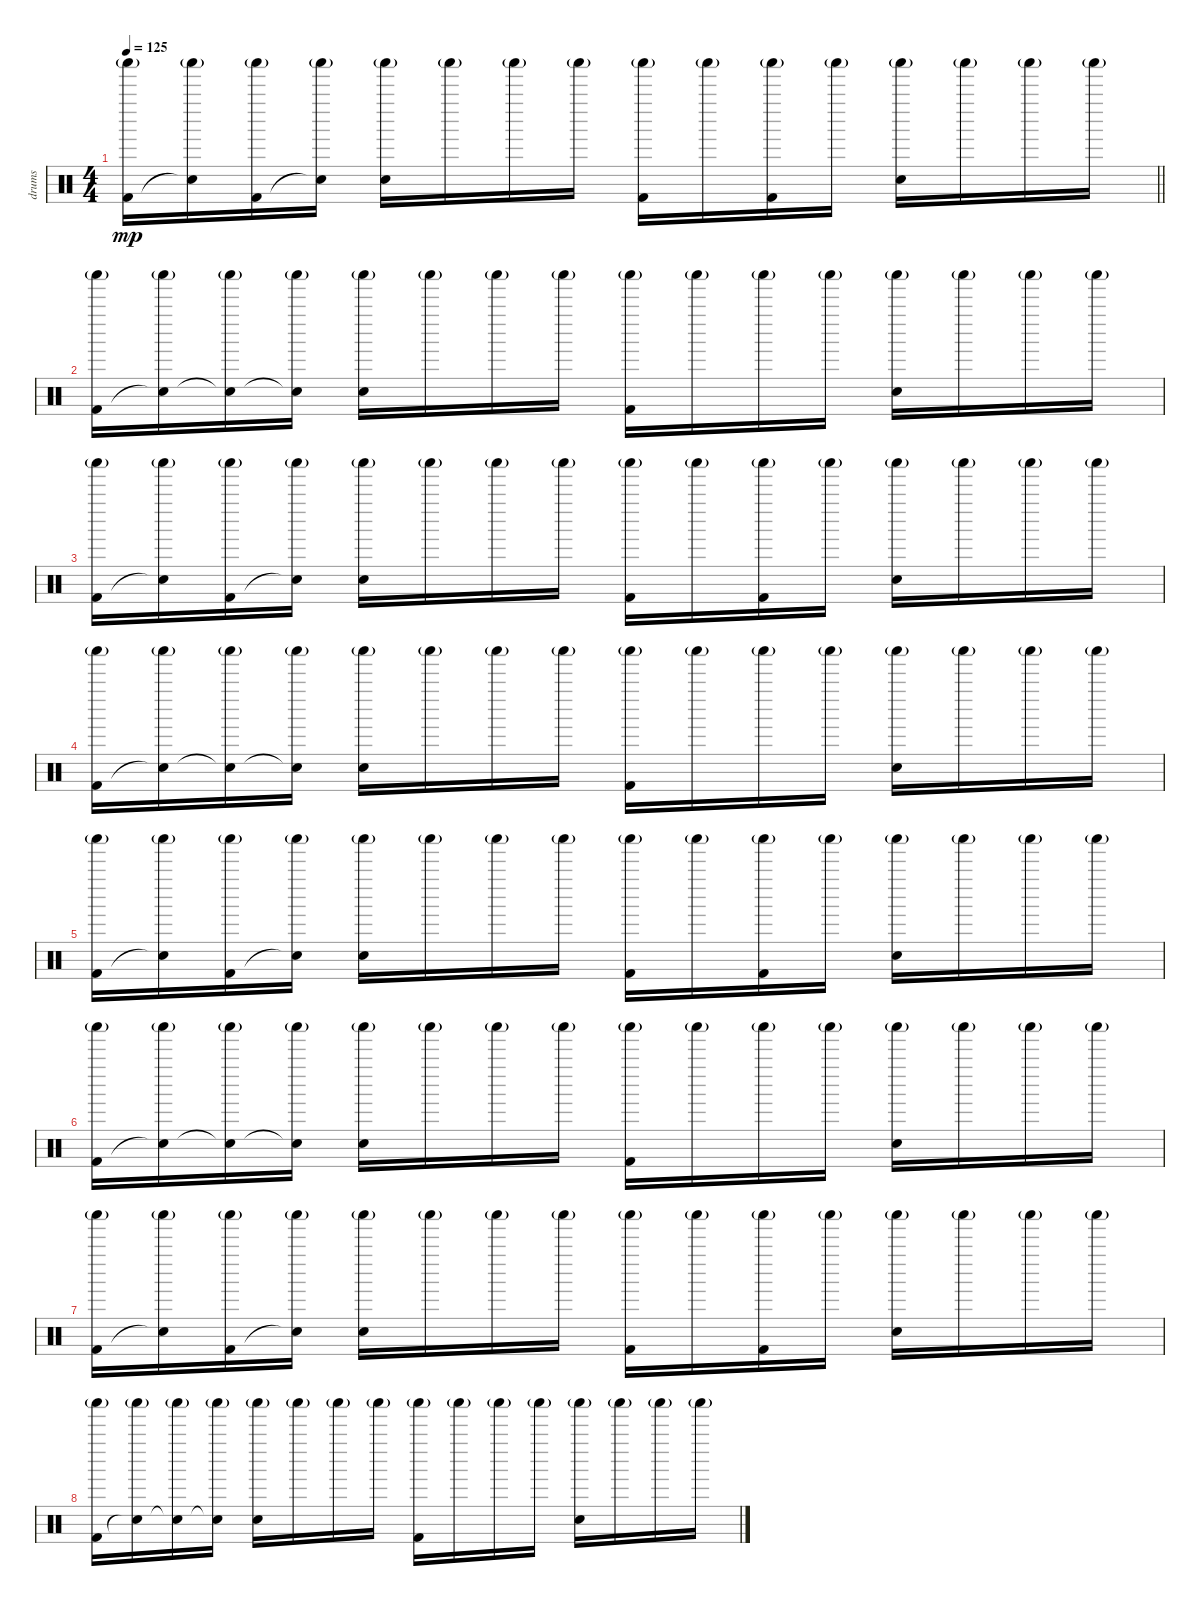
\track ("drums" "drums") {instrument percussion}
\staff {score}
\articulation defaults
\ts (4 4)
\tempo 125
\clef neutral
\barLineRight lightlight
\ks c
("Shaker (hit)"{g} "Kick (hit) 2").16{dy mp} ("Shaker (hit)"{g} "Snare (hit)"{t}).16 ("Shaker (hit)"{g} "Kick (hit) 2").16 ("Shaker (hit)"{g} "Snare (hit)"{t}).16 ("Shaker (hit)"{g} "Snare (hit) 2").16 "Shaker (hit)"{g}.16 "Shaker (hit)"{g}.16 "Shaker (hit)"{g}.16 ("Shaker (hit)"{g} "Kick (hit) 2").16 "Shaker (hit)"{g}.16 ("Shaker (hit)"{g} "Kick (hit) 2").16 "Shaker (hit)"{g}.16 ("Shaker (hit)"{g} "Snare (hit) 2").16 "Shaker (hit)"{g}.16 "Shaker (hit)"{g}.16 "Shaker (hit)"{g}.16 |
("Shaker (hit)"{g} "Kick (hit) 2").16 ("Shaker (hit)"{g} "Snare (hit)"{t}).16 ("Shaker (hit)"{g} "Snare (hit)"{t}).16 ("Shaker (hit)"{g} "Snare (hit)"{t}).16 ("Shaker (hit)"{g} "Snare (hit) 2").16 "Shaker (hit)"{g}.16 "Shaker (hit)"{g}.16 "Shaker (hit)"{g}.16 ("Shaker (hit)"{g} "Kick (hit) 2").16 "Shaker (hit)"{g}.16 "Shaker (hit)"{g}.16 "Shaker (hit)"{g}.16 ("Shaker (hit)"{g} "Snare (hit) 2").16 "Shaker (hit)"{g}.16 "Shaker (hit)"{g}.16 "Shaker (hit)"{g}.16 |
("Shaker (hit)"{g} "Kick (hit) 2").16 ("Shaker (hit)"{g} "Snare (hit)"{t}).16 ("Shaker (hit)"{g} "Kick (hit) 2").16 ("Shaker (hit)"{g} "Snare (hit)"{t}).16 ("Shaker (hit)"{g} "Snare (hit) 2").16 "Shaker (hit)"{g}.16 "Shaker (hit)"{g}.16 "Shaker (hit)"{g}.16 ("Shaker (hit)"{g} "Kick (hit) 2").16 "Shaker (hit)"{g}.16 ("Shaker (hit)"{g} "Kick (hit) 2").16 "Shaker (hit)"{g}.16 ("Shaker (hit)"{g} "Snare (hit) 2").16 "Shaker (hit)"{g}.16 "Shaker (hit)"{g}.16 "Shaker (hit)"{g}.16 |
("Shaker (hit)"{g} "Kick (hit) 2").16 ("Shaker (hit)"{g} "Snare (hit)"{t}).16 ("Shaker (hit)"{g} "Snare (hit)"{t}).16 ("Shaker (hit)"{g} "Snare (hit)"{t}).16 ("Shaker (hit)"{g} "Snare (hit) 2").16 "Shaker (hit)"{g}.16 "Shaker (hit)"{g}.16 "Shaker (hit)"{g}.16 ("Shaker (hit)"{g} "Kick (hit) 2").16 "Shaker (hit)"{g}.16 "Shaker (hit)"{g}.16 "Shaker (hit)"{g}.16 ("Shaker (hit)"{g} "Snare (hit) 2").16 "Shaker (hit)"{g}.16 "Shaker (hit)"{g}.16 "Shaker (hit)"{g}.16 |
("Shaker (hit)"{g} "Kick (hit) 2").16 ("Shaker (hit)"{g} "Snare (hit)"{t}).16 ("Shaker (hit)"{g} "Kick (hit) 2").16 ("Shaker (hit)"{g} "Snare (hit)"{t}).16 ("Shaker (hit)"{g} "Snare (hit) 2").16 "Shaker (hit)"{g}.16 "Shaker (hit)"{g}.16 "Shaker (hit)"{g}.16 ("Shaker (hit)"{g} "Kick (hit) 2").16 "Shaker (hit)"{g}.16 ("Shaker (hit)"{g} "Kick (hit) 2").16 "Shaker (hit)"{g}.16 ("Shaker (hit)"{g} "Snare (hit) 2").16 "Shaker (hit)"{g}.16 "Shaker (hit)"{g}.16 "Shaker (hit)"{g}.16 |
("Shaker (hit)"{g} "Kick (hit) 2").16 ("Shaker (hit)"{g} "Snare (hit)"{t}).16 ("Shaker (hit)"{g} "Snare (hit)"{t}).16 ("Shaker (hit)"{g} "Snare (hit)"{t}).16 ("Shaker (hit)"{g} "Snare (hit) 2").16 "Shaker (hit)"{g}.16 "Shaker (hit)"{g}.16 "Shaker (hit)"{g}.16 ("Shaker (hit)"{g} "Kick (hit) 2").16 "Shaker (hit)"{g}.16 "Shaker (hit)"{g}.16 "Shaker (hit)"{g}.16 ("Shaker (hit)"{g} "Snare (hit) 2").16 "Shaker (hit)"{g}.16 "Shaker (hit)"{g}.16 "Shaker (hit)"{g}.16 |
("Shaker (hit)"{g} "Kick (hit) 2").16 ("Shaker (hit)"{g} "Snare (hit)"{t}).16 ("Shaker (hit)"{g} "Kick (hit) 2").16 ("Shaker (hit)"{g} "Snare (hit)"{t}).16 ("Shaker (hit)"{g} "Snare (hit) 2").16 "Shaker (hit)"{g}.16 "Shaker (hit)"{g}.16 "Shaker (hit)"{g}.16 ("Shaker (hit)"{g} "Kick (hit) 2").16 "Shaker (hit)"{g}.16 ("Shaker (hit)"{g} "Kick (hit) 2").16 "Shaker (hit)"{g}.16 ("Shaker (hit)"{g} "Snare (hit) 2").16 "Shaker (hit)"{g}.16 "Shaker (hit)"{g}.16 "Shaker (hit)"{g}.16 |
("Shaker (hit)"{g} "Kick (hit) 2").16 ("Shaker (hit)"{g} "Snare (hit)"{t}).16 ("Shaker (hit)"{g} "Snare (hit)"{t}).16 ("Shaker (hit)"{g} "Snare (hit)"{t}).16 ("Shaker (hit)"{g} "Snare (hit) 2").16 "Shaker (hit)"{g}.16 "Shaker (hit)"{g}.16 "Shaker (hit)"{g}.16 ("Shaker (hit)"{g} "Kick (hit) 2").16 "Shaker (hit)"{g}.16 "Shaker (hit)"{g}.16 "Shaker (hit)"{g}.16 ("Shaker (hit)"{g} "Snare (hit) 2").16 "Shaker (hit)"{g}.16 "Shaker (hit)"{g}.16 "Shaker (hit)"{g}.16
